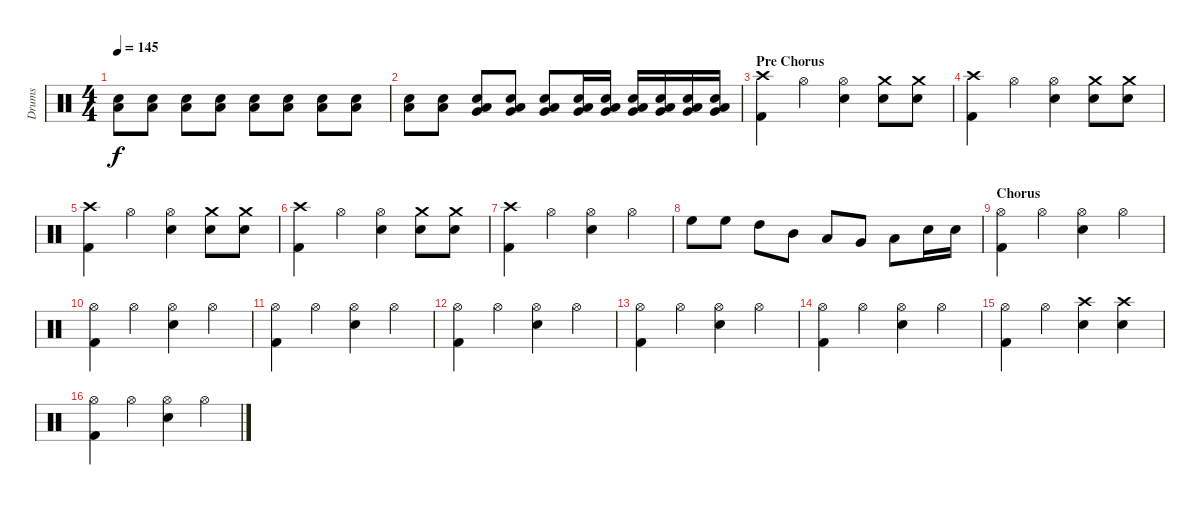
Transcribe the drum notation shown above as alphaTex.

\track ("Drums" "Drums") {instrument percussion}
\staff {score}
\articulation defaults
\ts (4 4)
\tempo 145
\clef neutral
\ks c
("Low Floor Tom (hit)" "Electric Snare (hit)").8{dy f} ("Low Floor Tom (hit)" "Electric Snare (hit)").8 ("Low Floor Tom (hit)" "Electric Snare (hit)").8 ("Low Floor Tom (hit)" "Electric Snare (hit)").8 ("Low Floor Tom (hit)" "Electric Snare (hit)").8 ("Low Floor Tom (hit)" "Electric Snare (hit)").8 ("Low Floor Tom (hit)" "Electric Snare (hit)").8 ("Low Floor Tom (hit)" "Electric Snare (hit)").8 |
("Low Floor Tom (hit)" "Electric Snare (hit)").8 ("Low Floor Tom (hit)" "Electric Snare (hit)").8 ("Low Floor Tom (hit)" "Electric Snare (hit)" "Very Low Tom (hit)").8 ("Low Floor Tom (hit)" "Electric Snare (hit)" "Very Low Tom (hit)").8 ("Low Floor Tom (hit)" "Electric Snare (hit)" "Very Low Tom (hit)").8 ("Low Floor Tom (hit)" "Electric Snare (hit)" "Very Low Tom (hit)").16 ("Low Floor Tom (hit)" "Electric Snare (hit)" "Very Low Tom (hit)").16 ("Low Floor Tom (hit)" "Electric Snare (hit)" "Very Low Tom (hit)").16 ("Low Floor Tom (hit)" "Electric Snare (hit)" "Very Low Tom (hit)").16 ("Low Floor Tom (hit)" "Electric Snare (hit)" "Very Low Tom (hit)").16 ("Low Floor Tom (hit)" "Electric Snare (hit)" "Very Low Tom (hit)").16 |
\section ("" "Pre Chorus")
("Crash high (hit)" "Kick (hit) 2").4 "Hi-Hat (open)".4 ("Hi-Hat (open)" "Electric Snare (hit)").4 ("Crash medium (hit)" "Electric Snare (hit)").8 ("Crash medium (hit)" "Electric Snare (hit)").8 |
("Crash high (hit)" "Kick (hit) 2").4 "Hi-Hat (open)".4 ("Hi-Hat (open)" "Electric Snare (hit)").4 ("Crash medium (hit)" "Electric Snare (hit)").8 ("Crash medium (hit)" "Electric Snare (hit)").8 |
("Crash high (hit)" "Kick (hit) 2").4 "Hi-Hat (open)".4 ("Hi-Hat (open)" "Electric Snare (hit)").4 ("Crash medium (hit)" "Electric Snare (hit)").8 ("Crash medium (hit)" "Electric Snare (hit)").8 |
("Crash high (hit)" "Kick (hit) 2").4 "Hi-Hat (open)".4 ("Hi-Hat (open)" "Electric Snare (hit)").4 ("Crash medium (hit)" "Electric Snare (hit)").8 ("Crash medium (hit)" "Electric Snare (hit)").8 |
("Crash high (hit)" "Kick (hit) 2").4 "Hi-Hat (open)".4 ("Hi-Hat (open)" "Electric Snare (hit)").4 "Hi-Hat (open)".4 |
"High Floor Tom (hit)".8 "High Floor Tom (hit)".8 "High Tom (hit)".8 "Mid Tom (hit)".8 "Low Tom (hit)".8 "Very Low Tom (hit)".8 "Low Floor Tom (hit)".8 "Electric Snare (hit)".16 "Electric Snare (hit)".16 |
\section ("" "Chorus")
("Hi-Hat (open)" "Kick (hit) 2").4 "Hi-Hat (open)".4 ("Hi-Hat (open)" "Electric Snare (hit)").4 "Hi-Hat (open)".4 |
("Hi-Hat (open)" "Kick (hit) 2").4 "Hi-Hat (open)".4 ("Hi-Hat (open)" "Electric Snare (hit)").4 "Hi-Hat (open)".4 |
("Hi-Hat (open)" "Kick (hit) 2").4 "Hi-Hat (open)".4 ("Hi-Hat (open)" "Electric Snare (hit)").4 "Hi-Hat (open)".4 |
("Hi-Hat (open)" "Kick (hit) 2").4 "Hi-Hat (open)".4 ("Hi-Hat (open)" "Electric Snare (hit)").4 "Hi-Hat (open)".4 |
("Hi-Hat (open)" "Kick (hit) 2").4 "Hi-Hat (open)".4 ("Hi-Hat (open)" "Electric Snare (hit)").4 "Hi-Hat (open)".4 |
("Hi-Hat (open)" "Kick (hit) 2").4 "Hi-Hat (open)".4 ("Hi-Hat (open)" "Electric Snare (hit)").4 "Hi-Hat (open)".4 |
("Hi-Hat (open)" "Kick (hit) 2").4 "Hi-Hat (open)".4 ("Crash high (hit)" "Electric Snare (hit)").4 ("Crash high (hit)" "Electric Snare (hit)").4 |
("Hi-Hat (open)" "Kick (hit) 2").4 "Hi-Hat (open)".4 ("Hi-Hat (open)" "Electric Snare (hit)").4 "Hi-Hat (open)".4
